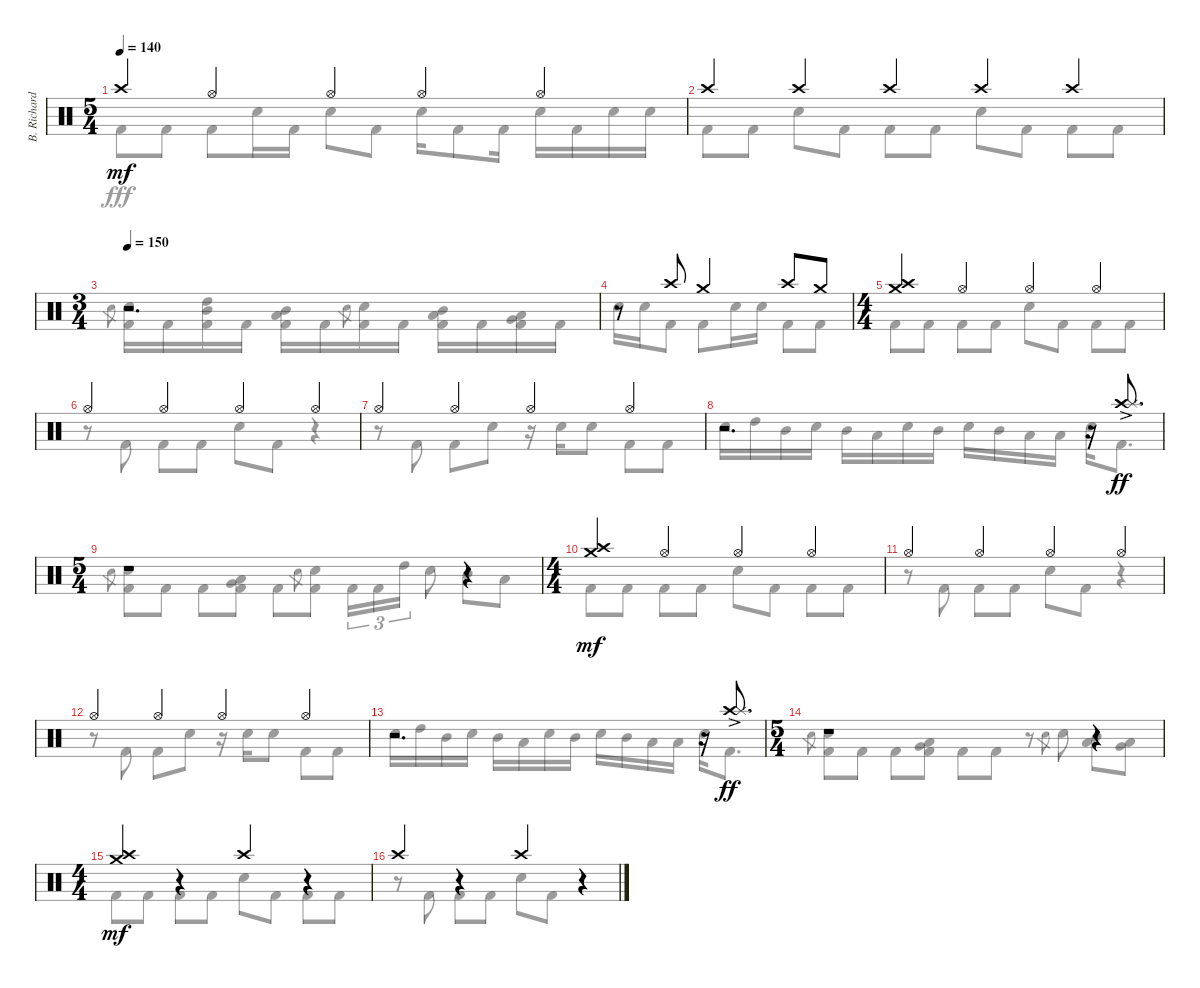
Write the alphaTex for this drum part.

\track ("B. Richardson Drums" "B. Richard") {instrument percussion}
\staff {score}
\articulation defaults
\voice
\ts (5 4)
\tempo 140
\clef neutral
\ks c "Crash high (hit)".4{dy mf} "Hi-Hat (open)".4 "Hi-Hat (open)".4 "Hi-Hat (open)".4 "Hi-Hat (open)".4
|
"Crash high (hit)".4 "Crash high (hit)".4 "Crash high (hit)".4 "Crash high (hit)".4 "Crash high (hit)".4 |
\ts (3 4)
\tempo 150
r.2{d} |
r.8 "Crash high (hit)".8 "Crash medium (hit)".4 "Crash high (hit)".8 "Crash medium (hit)".8 |
\ts (4 4)
("Crash high (hit)" "Crash medium (hit)").4 "Hi-Hat (open)".4 "Hi-Hat (open)".4 "Hi-Hat (open)".4 |
"Hi-Hat (open)".4 "Hi-Hat (open)".4 "Hi-Hat (open)".4 "Hi-Hat (open)".4 |
"Hi-Hat (open)".4 "Hi-Hat (open)".4 "Hi-Hat (open)".4 "Hi-Hat (open)".4 |
r.2{d} r.16 ("Crash high (hit)" "Splash (hit)"{ac}).8{d dy ff} |
\ts (5 4)
r.1 r.4 |
\ts (4 4)
("Crash high (hit)" "Crash medium (hit)").4{dy mf} "Hi-Hat (open)".4 "Hi-Hat (open)".4 "Hi-Hat (open)".4 |
"Hi-Hat (open)".4 "Hi-Hat (open)".4 "Hi-Hat (open)".4 "Hi-Hat (open)".4 |
"Hi-Hat (open)".4 "Hi-Hat (open)".4 "Hi-Hat (open)".4 "Hi-Hat (open)".4 |
r.2{d} r.16 ("Crash high (hit)" "Splash (hit)"{ac}).8{d dy ff} |
\ts (5 4)
r.1 r.4 |
\ts (4 4)
("Crash high (hit)" "Crash medium (hit)").4{dy mf} r.4 "Crash high (hit)".4 r.4 |
"Crash high (hit)".4 r.4 "Crash high (hit)".4 r.4
\voice
\clef neutral
\ottava regular
\simile none
\ks c "Kick (hit) 2".8{dy fff} "Kick (hit) 2".8 "Kick (hit) 2".8 "Electric Snare (hit)".16 "Kick (hit) 2".16 "Electric Snare (hit)".8 "Kick (hit) 2".8 "Electric Snare (hit)".16 "Kick (hit) 2".8 "Kick (hit) 2".16 "Electric Snare (hit)".16 "Kick (hit) 2".16 "Electric Snare (hit)".16 "Electric Snare (hit)".16
|
"Kick (hit) 2".8 "Kick (hit) 2".8 "Electric Snare (hit)".8 "Kick (hit) 2".8 "Kick (hit) 2".8 "Kick (hit) 2".8 "Electric Snare (hit)".8 "Kick (hit) 2".8 "Kick (hit) 2".8 "Kick (hit) 2".8 |
"Electric Snare (hit)".8{gr} ("Electric Snare (hit)" "Kick (hit) 2").16 "Kick (hit) 2".16 ("High Tom (hit)" "Mid Tom (hit)" "Kick (hit) 2").16 "Kick (hit) 2".16 ("Mid Tom (hit)" "Low Tom (hit)" "Kick (hit) 2").16 "Kick (hit) 2".16 "Electric Snare (hit)".8{gr} ("Electric Snare (hit)" "Kick (hit) 2").16 "Kick (hit) 2".16 ("Mid Tom (hit)" "Low Tom (hit)" "Kick (hit) 2").16 "Kick (hit) 2".16 ("Low Tom (hit)" "Very Low Tom (hit)" "Kick (hit) 2").16 "Kick (hit) 2".16 |
"Electric Snare (hit)".16 "Electric Snare (hit)".16 "Kick (hit) 2".8 "Kick (hit) 2".8 "Electric Snare (hit)".16 "Electric Snare (hit)".16 "Kick (hit) 2".8 "Kick (hit) 2".8 |
"Kick (hit) 2".8 "Kick (hit) 2".8 "Kick (hit) 2".8 "Kick (hit) 2".8 "Electric Snare (hit)".8 "Kick (hit) 2".8 "Kick (hit) 2".8 "Kick (hit) 2".8 |
r.8 "Kick (hit) 2".8 "Kick (hit) 2".8 "Kick (hit) 2".8 "Electric Snare (hit)".8 "Kick (hit) 2".8 r.4 |
r.8 "Kick (hit) 2".8 "Kick (hit) 2".8 "Electric Snare (hit)".8 r.16 "Electric Snare (hit)".16 "Electric Snare (hit)".8 "Kick (hit) 2".8 "Kick (hit) 2".8 |
"Electric Snare (hit)".16 "High Tom (hit)".16 "Mid Tom (hit)".16 "Electric Snare (hit)".16 "Mid Tom (hit)".16 "Low Tom (hit)".16 "Electric Snare (hit)".16 "Mid Tom (hit)".16 "Electric Snare (hit)".16 "Mid Tom (hit)".16 "Low Tom (hit)".16 "Low Tom (hit)".16 "Electric Snare (hit)".16 "Kick (hit) 2".8{d} |
"Electric Snare (hit)".8{gr} ("Electric Snare (hit)" "Kick (hit) 2").8 "Kick (hit) 2".8 "Kick (hit) 2".8 ("Low Tom (hit)" "Very Low Tom (hit)" "Kick (hit) 2").8 "Kick (hit) 2".8 "Electric Snare (hit)".8{gr} ("Electric Snare (hit)" "Kick (hit) 2").8 "Kick (hit) 2".16{tu (3 2)} "Kick (hit) 2".16{tu (3 2)} "High Tom (hit)".16{tu (3 2)} "Electric Snare (hit)".8 "Mid Tom (hit)".8 "Low Tom (hit)".8 |
"Kick (hit) 2".8 "Kick (hit) 2".8 "Kick (hit) 2".8 "Kick (hit) 2".8 "Electric Snare (hit)".8 "Kick (hit) 2".8 "Kick (hit) 2".8 "Kick (hit) 2".8 |
r.8 "Kick (hit) 2".8 "Kick (hit) 2".8 "Kick (hit) 2".8 "Electric Snare (hit)".8 "Kick (hit) 2".8 r.4 |
r.8 "Kick (hit) 2".8 "Kick (hit) 2".8 "Electric Snare (hit)".8 r.16 "Electric Snare (hit)".16 "Electric Snare (hit)".8 "Kick (hit) 2".8 "Kick (hit) 2".8 |
"Electric Snare (hit)".16 "High Tom (hit)".16 "Mid Tom (hit)".16 "Electric Snare (hit)".16 "Mid Tom (hit)".16 "Low Tom (hit)".16 "Electric Snare (hit)".16 "Mid Tom (hit)".16 "Electric Snare (hit)".16 "Mid Tom (hit)".16 "Low Tom (hit)".16 "Low Tom (hit)".16 "Electric Snare (hit)".16 "Kick (hit) 2".8{d} |
"Electric Snare (hit)".8{gr} ("Electric Snare (hit)" "Kick (hit) 2").8 "Kick (hit) 2".8 "Kick (hit) 2".8 ("Low Tom (hit)" "Very Low Tom (hit)" "Kick (hit) 2").8 "Kick (hit) 2".8 "Kick (hit) 2".8 r.8 "Electric Snare (hit)".8{gr} "Electric Snare (hit)".8 ("Mid Tom (hit)" "Low Tom (hit)").8 ("Low Tom (hit)" "Very Low Tom (hit)").8 |
"Kick (hit) 2".8 "Kick (hit) 2".8 "Kick (hit) 2".8 "Kick (hit) 2".8 "Electric Snare (hit)".8 "Kick (hit) 2".8 "Kick (hit) 2".8 "Kick (hit) 2".8 |
r.8 "Kick (hit) 2".8 "Kick (hit) 2".8 "Kick (hit) 2".8 "Electric Snare (hit)".8 "Kick (hit) 2".8 r.4
